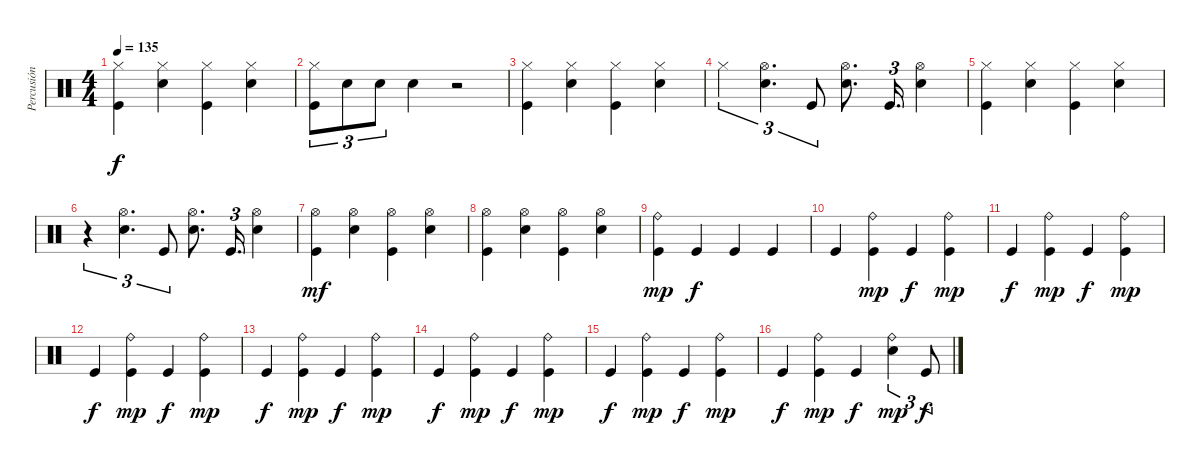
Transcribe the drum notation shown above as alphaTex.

\track ("Percusión" "Percusión") {instrument percussion}
\staff {score}
\articulation defaults
\ts (4 4)
\tempo 135
\clef neutral
\ks c
("Hi-Hat (closed)" "Kick (hit)").4{dy f} ("Hi-Hat (closed)" "Snare (hit) 2").4 ("Hi-Hat (closed)" "Kick (hit)").4 ("Hi-Hat (closed)" "Snare (hit) 2").4 |
("Hi-Hat (closed)" "Kick (hit)").8{tu (3 2)} "Snare (hit) 2".8{tu (3 2)} "Snare (hit) 2".8{tu (3 2)} "Snare (hit) 2".4 r.2 |
("Hi-Hat (closed)" "Kick (hit)").4 ("Hi-Hat (closed)" "Snare (hit) 2").4 ("Hi-Hat (closed)" "Kick (hit)").4 ("Hi-Hat (closed)" "Snare (hit) 2").4 |
"Hi-Hat (closed)".4{tu (3 2)} ("Hi-Hat (open)" "Snare (hit) 2").4{d tu (3 2)} "Kick (hit)".8{tu (3 2)} ("Hi-Hat (open)" "Snare (hit) 2").8{d} "Kick (hit)".16{d tu (3 2)} ("Hi-Hat (open)" "Snare (hit) 2").4 |
("Hi-Hat (closed)" "Kick (hit)").4 ("Hi-Hat (closed)" "Snare (hit) 2").4 ("Hi-Hat (closed)" "Kick (hit)").4 ("Hi-Hat (closed)" "Snare (hit) 2").4 |
r.4{tu (3 2)} ("Hi-Hat (open)" "Snare (hit) 2").4{d tu (3 2)} "Kick (hit)".8{tu (3 2)} ("Hi-Hat (open)" "Snare (hit) 2").8{d} "Kick (hit)".16{d tu (3 2)} ("Hi-Hat (open)" "Snare (hit) 2").4 |
("Hi-Hat (open)" "Kick (hit)").4{dy mf} ("Hi-Hat (open)" "Snare (hit) 2").4 ("Hi-Hat (open)" "Kick (hit)").4 ("Hi-Hat (open)" "Snare (hit) 2").4 |
("Hi-Hat (open)" "Kick (hit)").4 ("Hi-Hat (open)" "Snare (hit) 2").4 ("Hi-Hat (open)" "Kick (hit)").4 ("Hi-Hat (open)" "Snare (hit) 2").4 |
("Ride (bell)" "Kick (hit)").4{dy mp} "Kick (hit)".4{dy f} "Kick (hit)".4 "Kick (hit)".4 |
"Kick (hit)".4 ("Ride (bell)" "Kick (hit)").4{dy mp} "Kick (hit)".4{dy f} ("Ride (bell)" "Kick (hit)").4{dy mp} |
"Kick (hit)".4{dy f} ("Ride (bell)" "Kick (hit)").4{dy mp} "Kick (hit)".4{dy f} ("Ride (bell)" "Kick (hit)").4{dy mp} |
"Kick (hit)".4{dy f} ("Ride (bell)" "Kick (hit)").4{dy mp} "Kick (hit)".4{dy f} ("Ride (bell)" "Kick (hit)").4{dy mp} |
"Kick (hit)".4{dy f} ("Ride (bell)" "Kick (hit)").4{dy mp} "Kick (hit)".4{dy f} ("Ride (bell)" "Kick (hit)").4{dy mp} |
"Kick (hit)".4{dy f} ("Ride (bell)" "Kick (hit)").4{dy mp} "Kick (hit)".4{dy f} ("Ride (bell)" "Kick (hit)").4{dy mp} |
"Kick (hit)".4{dy f} ("Ride (bell)" "Kick (hit)").4{dy mp} "Kick (hit)".4{dy f} ("Ride (bell)" "Kick (hit)").4{dy mp} |
"Kick (hit)".4{dy f} ("Ride (bell)" "Kick (hit)").4{dy mp} "Kick (hit)".4{dy f} ("Ride (bell)" "Snare (hit) 2").4{tu (3 2) dy mp} "Kick (hit)".8{tu (3 2) dy f}
